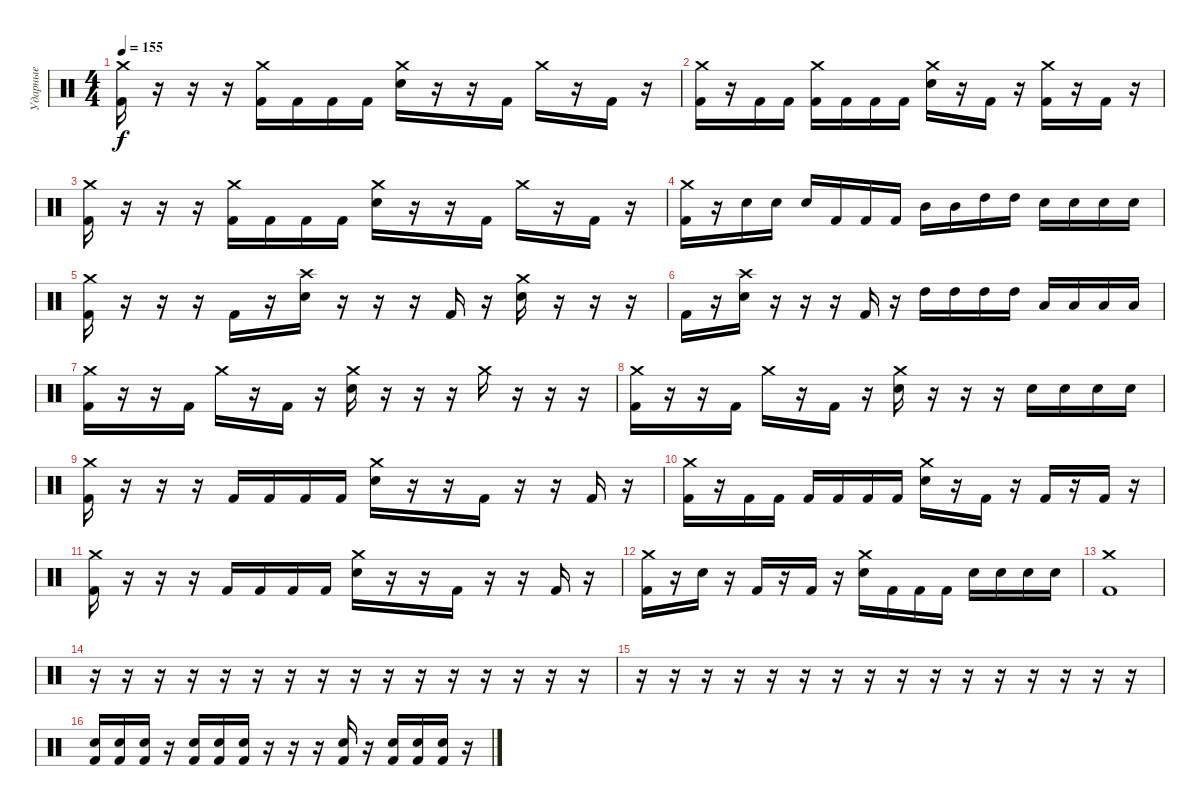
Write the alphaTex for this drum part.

\track ("Ударные" "Ударные") {instrument percussion}
\staff {score}
\articulation defaults
\ts (4 4)
\tempo 155
\clef neutral
\ks c
("Crash medium (hit)" "Kick (hit) 2").16{dy f} r.16 r.16 r.16 ("Crash medium (hit)" "Kick (hit) 2").16 "Kick (hit) 2".16 "Kick (hit) 2".16 "Kick (hit) 2".16 ("Crash medium (hit)" "Snare (hit) 2").16 r.16 r.16 "Kick (hit) 2".16 "Crash medium (hit)".16 r.16 "Kick (hit) 2".16 r.16 |
("Crash medium (hit)" "Kick (hit) 2").16 r.16 "Kick (hit) 2".16 "Kick (hit) 2".16 ("Crash medium (hit)" "Kick (hit) 2").16 "Kick (hit) 2".16 "Kick (hit) 2".16 "Kick (hit) 2".16 ("Crash medium (hit)" "Snare (hit) 2").16 r.16 "Kick (hit) 2".16 r.16 ("Crash medium (hit)" "Kick (hit) 2").16 r.16 "Kick (hit) 2".16 r.16 |
("Crash medium (hit)" "Kick (hit) 2").16 r.16 r.16 r.16 ("Crash medium (hit)" "Kick (hit) 2").16 "Kick (hit) 2".16 "Kick (hit) 2".16 "Kick (hit) 2".16 ("Crash medium (hit)" "Snare (hit) 2").16 r.16 r.16 "Kick (hit) 2".16 "Crash medium (hit)".16 r.16 "Kick (hit) 2".16 r.16 |
("Crash medium (hit)" "Kick (hit) 2").16 r.16 "Snare (hit) 2".16 "Snare (hit) 2".16 "Snare (hit) 2".16 "Kick (hit) 2".16 "Kick (hit) 2".16 "Kick (hit) 2".16 "Mid Tom (hit)".16 "Mid Tom (hit)".16 "High Tom (hit)".16 "High Tom (hit)".16 "Snare (hit) 2".16 "Snare (hit) 2".16 "Snare (hit) 2".16 "Snare (hit) 2".16 |
("Crash medium (hit)" "Kick (hit) 2").16 r.16 r.16 r.16 "Kick (hit) 2".16 r.16 ("Crash high (hit)" "Snare (hit) 2").16 r.16 r.16 r.16 "Kick (hit) 2".16 r.16 ("Crash medium (hit)" "Snare (hit) 2").16 r.16 r.16 r.16 |
"Kick (hit) 2".16 r.16 ("Crash high (hit)" "Snare (hit) 2").16 r.16 r.16 r.16 "Kick (hit) 2".16 r.16 "High Tom (hit)".16 "High Tom (hit)".16 "High Tom (hit)".16 "High Tom (hit)".16 "Low Tom (hit)".16 "Low Tom (hit)".16 "Low Tom (hit)".16 "Low Tom (hit)".16 |
("Crash medium (hit)" "Kick (hit) 2").16 r.16 r.16 "Kick (hit) 2".16 "Crash medium (hit)".16 r.16 "Kick (hit) 2".16 r.16 ("Crash medium (hit)" "Snare (hit) 2").16 r.16 r.16 r.16 "Crash medium (hit)".16 r.16 r.16 r.16 |
("Crash medium (hit)" "Kick (hit) 2").16 r.16 r.16 "Kick (hit) 2".16 "Crash medium (hit)".16 r.16 "Kick (hit) 2".16 r.16 ("Crash medium (hit)" "Snare (hit) 2").16 r.16 r.16 r.16 "Snare (hit) 2".16 "Snare (hit) 2".16 "Snare (hit) 2".16 "Snare (hit) 2".16 |
("Crash medium (hit)" "Kick (hit) 2").16 r.16 r.16 r.16 "Kick (hit) 2".16 "Kick (hit) 2".16 "Kick (hit) 2".16 "Kick (hit) 2".16 ("Crash medium (hit)" "Snare (hit) 2").16 r.16 r.16 "Kick (hit) 2".16 r.16 r.16 "Kick (hit) 2".16 r.16 |
("Crash medium (hit)" "Kick (hit) 2").16 r.16 "Kick (hit) 2".16 "Kick (hit) 2".16 "Kick (hit) 2".16 "Kick (hit) 2".16 "Kick (hit) 2".16 "Kick (hit) 2".16 ("Crash medium (hit)" "Snare (hit) 2").16 r.16 "Kick (hit) 2".16 r.16 "Kick (hit) 2".16 r.16 "Kick (hit) 2".16 r.16 |
("Crash medium (hit)" "Kick (hit) 2").16 r.16 r.16 r.16 "Kick (hit) 2".16 "Kick (hit) 2".16 "Kick (hit) 2".16 "Kick (hit) 2".16 ("Crash medium (hit)" "Snare (hit) 2").16 r.16 r.16 "Kick (hit) 2".16 r.16 r.16 "Kick (hit) 2".16 r.16 |
("Crash medium (hit)" "Kick (hit) 2").16 r.16 "Snare (hit) 2".16 r.16 "Kick (hit) 2".16 r.16 "Kick (hit) 2".16 r.16 ("Crash medium (hit)" "Snare (hit) 2").16 "Kick (hit) 2".16 "Kick (hit) 2".16 "Kick (hit) 2".16 "Snare (hit) 2".16 "Snare (hit) 2".16 "Snare (hit) 2".16 "Snare (hit) 2".16 |
("Crash medium (hit)" "Kick (hit) 2").1 |
r.16 r.16 r.16 r.16 r.16 r.16 r.16 r.16 r.16 r.16 r.16 r.16 r.16 r.16 r.16 r.16 |
r.16 r.16 r.16 r.16 r.16 r.16 r.16 r.16 r.16 r.16 r.16 r.16 r.16 r.16 r.16 r.16 |
("Snare (hit) 2" "Kick (hit) 2").16 ("Snare (hit) 2" "Kick (hit) 2").16 ("Snare (hit) 2" "Kick (hit) 2").16 r.16 ("Snare (hit) 2" "Kick (hit) 2").16 ("Snare (hit) 2" "Kick (hit) 2").16 ("Snare (hit) 2" "Kick (hit) 2").16 r.16 r.16 r.16 ("Snare (hit) 2" "Kick (hit) 2").16 r.16 ("Snare (hit) 2" "Kick (hit) 2").16 ("Snare (hit) 2" "Kick (hit) 2").16 ("Snare (hit) 2" "Kick (hit) 2").16 r.16
